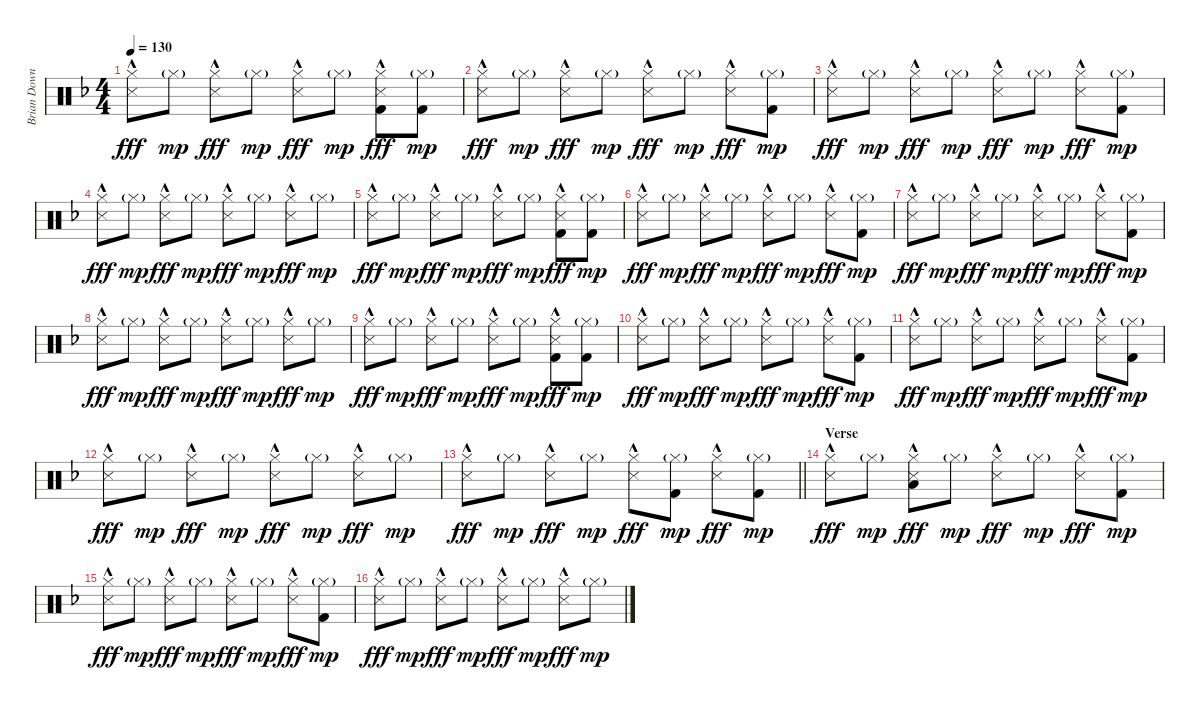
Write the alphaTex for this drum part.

\track ("Brian Downey" "Brian Down") {instrument percussion}
\staff {score}
\articulation defaults
\ts (4 4)
\tempo 130
\clef neutral
\ks dminor
("Hi-Hat (closed)" "Metronome (hit)"{hac}).8{dy fff} "Hi-Hat (closed)"{g}.8{dy mp} ("Hi-Hat (closed)" "Metronome (hit)"{hac}).8{dy fff} "Hi-Hat (closed)"{g}.8{dy mp} ("Hi-Hat (closed)" "Metronome (hit)"{hac}).8{dy fff} "Hi-Hat (closed)"{g}.8{dy mp} ("Hi-Hat (closed)" "Metronome (hit)"{hac} "Kick (hit) 2").8{dy fff} ("Hi-Hat (closed)"{g} "Kick (hit) 2").8{dy mp} |
("Hi-Hat (closed)" "Metronome (hit)"{hac}).8{dy fff} "Hi-Hat (closed)"{g}.8{dy mp} ("Hi-Hat (closed)" "Metronome (hit)"{hac}).8{dy fff} "Hi-Hat (closed)"{g}.8{dy mp} ("Hi-Hat (closed)" "Metronome (hit)"{hac}).8{dy fff} "Hi-Hat (closed)"{g}.8{dy mp} ("Hi-Hat (closed)" "Metronome (hit)"{hac}).8{dy fff} ("Hi-Hat (closed)"{g} "Kick (hit) 2").8{dy mp} |
("Hi-Hat (closed)" "Metronome (hit)"{hac}).8{dy fff} "Hi-Hat (closed)"{g}.8{dy mp} ("Hi-Hat (closed)" "Metronome (hit)"{hac}).8{dy fff} "Hi-Hat (closed)"{g}.8{dy mp} ("Hi-Hat (closed)" "Metronome (hit)"{hac}).8{dy fff} "Hi-Hat (closed)"{g}.8{dy mp} ("Hi-Hat (closed)" "Metronome (hit)"{hac}).8{dy fff} ("Hi-Hat (closed)"{g} "Kick (hit) 2").8{dy mp} |
("Hi-Hat (closed)" "Metronome (hit)"{hac}).8{dy fff} "Hi-Hat (closed)"{g}.8{dy mp} ("Hi-Hat (closed)" "Metronome (hit)"{hac}).8{dy fff} "Hi-Hat (closed)"{g}.8{dy mp} ("Hi-Hat (closed)" "Metronome (hit)"{hac}).8{dy fff} "Hi-Hat (closed)"{g}.8{dy mp} ("Hi-Hat (closed)" "Metronome (hit)"{hac}).8{dy fff} "Hi-Hat (closed)"{g}.8{dy mp} |
("Hi-Hat (closed)" "Metronome (hit)"{hac}).8{dy fff} "Hi-Hat (closed)"{g}.8{dy mp} ("Hi-Hat (closed)" "Metronome (hit)"{hac}).8{dy fff} "Hi-Hat (closed)"{g}.8{dy mp} ("Hi-Hat (closed)" "Metronome (hit)"{hac}).8{dy fff} "Hi-Hat (closed)"{g}.8{dy mp} ("Hi-Hat (closed)" "Metronome (hit)"{hac} "Kick (hit) 2").8{dy fff} ("Hi-Hat (closed)"{g} "Kick (hit) 2").8{dy mp} |
("Hi-Hat (closed)" "Metronome (hit)"{hac}).8{dy fff} "Hi-Hat (closed)"{g}.8{dy mp} ("Hi-Hat (closed)" "Metronome (hit)"{hac}).8{dy fff} "Hi-Hat (closed)"{g}.8{dy mp} ("Hi-Hat (closed)" "Metronome (hit)"{hac}).8{dy fff} "Hi-Hat (closed)"{g}.8{dy mp} ("Hi-Hat (closed)" "Metronome (hit)"{hac}).8{dy fff} ("Hi-Hat (closed)"{g} "Kick (hit) 2").8{dy mp} |
("Hi-Hat (closed)" "Metronome (hit)"{hac}).8{dy fff} "Hi-Hat (closed)"{g}.8{dy mp} ("Hi-Hat (closed)" "Metronome (hit)"{hac}).8{dy fff} "Hi-Hat (closed)"{g}.8{dy mp} ("Hi-Hat (closed)" "Metronome (hit)"{hac}).8{dy fff} "Hi-Hat (closed)"{g}.8{dy mp} ("Hi-Hat (closed)" "Metronome (hit)"{hac}).8{dy fff} ("Hi-Hat (closed)"{g} "Kick (hit) 2").8{dy mp} |
("Hi-Hat (closed)" "Metronome (hit)"{hac}).8{dy fff} "Hi-Hat (closed)"{g}.8{dy mp} ("Hi-Hat (closed)" "Metronome (hit)"{hac}).8{dy fff} "Hi-Hat (closed)"{g}.8{dy mp} ("Hi-Hat (closed)" "Metronome (hit)"{hac}).8{dy fff} "Hi-Hat (closed)"{g}.8{dy mp} ("Hi-Hat (closed)" "Metronome (hit)"{hac}).8{dy fff} "Hi-Hat (closed)"{g}.8{dy mp} |
("Hi-Hat (closed)" "Metronome (hit)"{hac}).8{dy fff} "Hi-Hat (closed)"{g}.8{dy mp} ("Hi-Hat (closed)" "Metronome (hit)"{hac}).8{dy fff} "Hi-Hat (closed)"{g}.8{dy mp} ("Hi-Hat (closed)" "Metronome (hit)"{hac}).8{dy fff} "Hi-Hat (closed)"{g}.8{dy mp} ("Hi-Hat (closed)" "Metronome (hit)"{hac} "Kick (hit) 2").8{dy fff} ("Hi-Hat (closed)"{g} "Kick (hit) 2").8{dy mp} |
("Hi-Hat (closed)" "Metronome (hit)"{hac}).8{dy fff} "Hi-Hat (closed)"{g}.8{dy mp} ("Hi-Hat (closed)" "Metronome (hit)"{hac}).8{dy fff} "Hi-Hat (closed)"{g}.8{dy mp} ("Hi-Hat (closed)" "Metronome (hit)"{hac}).8{dy fff} "Hi-Hat (closed)"{g}.8{dy mp} ("Hi-Hat (closed)" "Metronome (hit)"{hac}).8{dy fff} ("Hi-Hat (closed)"{g} "Kick (hit) 2").8{dy mp} |
("Hi-Hat (closed)" "Metronome (hit)"{hac}).8{dy fff} "Hi-Hat (closed)"{g}.8{dy mp} ("Hi-Hat (closed)" "Metronome (hit)"{hac}).8{dy fff} "Hi-Hat (closed)"{g}.8{dy mp} ("Hi-Hat (closed)" "Metronome (hit)"{hac}).8{dy fff} "Hi-Hat (closed)"{g}.8{dy mp} ("Hi-Hat (closed)" "Metronome (hit)"{hac}).8{dy fff} ("Hi-Hat (closed)"{g} "Kick (hit) 2").8{dy mp} |
("Hi-Hat (closed)" "Metronome (hit)"{hac}).8{dy fff} "Hi-Hat (closed)"{g}.8{dy mp} ("Hi-Hat (closed)" "Metronome (hit)"{hac}).8{dy fff} "Hi-Hat (closed)"{g}.8{dy mp} ("Hi-Hat (closed)" "Metronome (hit)"{hac}).8{dy fff} "Hi-Hat (closed)"{g}.8{dy mp} ("Hi-Hat (closed)" "Metronome (hit)"{hac}).8{dy fff} "Hi-Hat (closed)"{g}.8{dy mp} |
\barLineRight lightlight
("Hi-Hat (closed)" "Metronome (hit)"{hac}).8{dy fff} "Hi-Hat (closed)"{g}.8{dy mp} ("Hi-Hat (closed)" "Metronome (hit)"{hac}).8{dy fff} "Hi-Hat (closed)"{g}.8{dy mp} ("Hi-Hat (closed)" "Metronome (hit)"{hac}).8{dy fff} ("Hi-Hat (closed)"{g} "Kick (hit) 2").8{dy mp} ("Hi-Hat (closed)" "Metronome (hit)"{hac}).8{dy fff} ("Hi-Hat (closed)"{g} "Kick (hit) 2").8{dy mp} |
\section ("" "Verse")
("Hi-Hat (closed)" "Metronome (hit)"{hac}).8{dy fff} "Hi-Hat (closed)"{g}.8{dy mp} ("Hi-Hat (closed)" "Low Tom (hit)" "Metronome (hit)"{hac}).8{dy fff} "Hi-Hat (closed)"{g}.8{dy mp} ("Hi-Hat (closed)" "Metronome (hit)"{hac}).8{dy fff} "Hi-Hat (closed)"{g}.8{dy mp} ("Hi-Hat (closed)" "Metronome (hit)"{hac}).8{dy fff} ("Hi-Hat (closed)"{g} "Kick (hit) 2").8{dy mp} |
("Hi-Hat (closed)" "Metronome (hit)"{hac}).8{dy fff} "Hi-Hat (closed)"{g}.8{dy mp} ("Hi-Hat (closed)" "Metronome (hit)"{hac}).8{dy fff} "Hi-Hat (closed)"{g}.8{dy mp} ("Hi-Hat (closed)" "Metronome (hit)"{hac}).8{dy fff} "Hi-Hat (closed)"{g}.8{dy mp} ("Hi-Hat (closed)" "Metronome (hit)"{hac}).8{dy fff} ("Hi-Hat (closed)"{g} "Kick (hit) 2").8{dy mp} |
("Hi-Hat (closed)" "Metronome (hit)"{hac}).8{dy fff} "Hi-Hat (closed)"{g}.8{dy mp} ("Hi-Hat (closed)" "Metronome (hit)"{hac}).8{dy fff} "Hi-Hat (closed)"{g}.8{dy mp} ("Hi-Hat (closed)" "Metronome (hit)"{hac}).8{dy fff} "Hi-Hat (closed)"{g}.8{dy mp} ("Hi-Hat (closed)" "Metronome (hit)"{hac}).8{dy fff} "Hi-Hat (closed)"{g}.8{dy mp}
